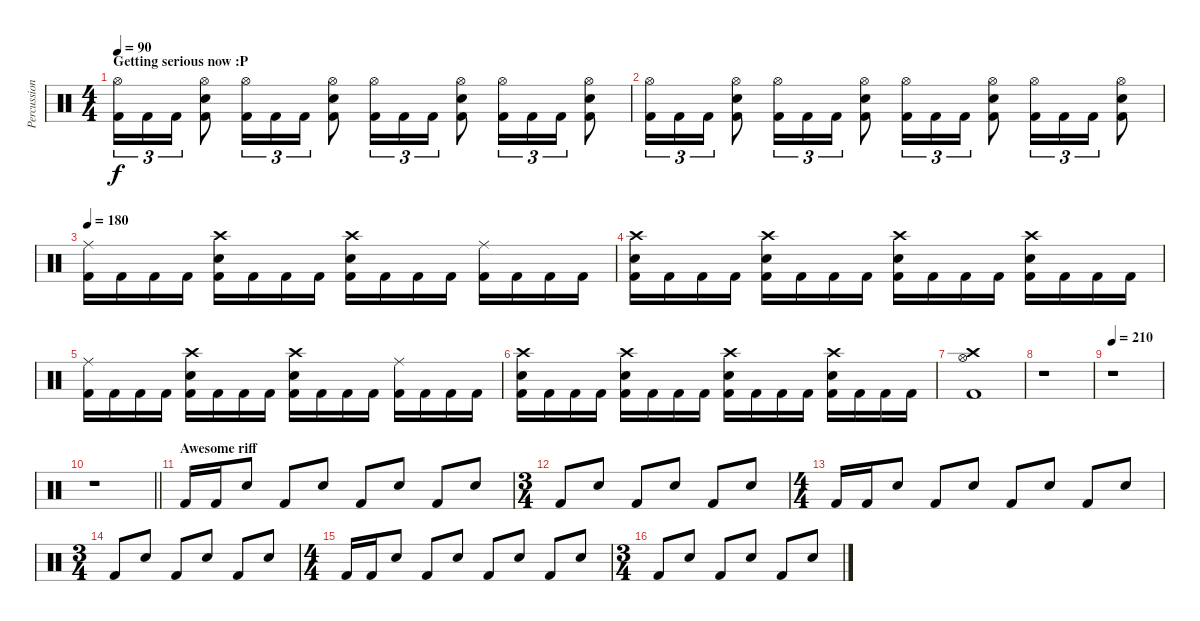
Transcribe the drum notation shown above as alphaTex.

\track ("Percussion" "Percussion") {instrument percussion}
\staff {score}
\articulation defaults
\ts (4 4)
\section ("" "Getting serious now :P")
\tempo 90
\clef neutral
\ks c
("Hi-Hat (open)" "Kick (hit) 2").16{tu (3 2) dy f} "Kick (hit) 2".16{tu (3 2)} "Kick (hit) 2".16{tu (3 2)} ("Hi-Hat (open)" "Snare (hit) 2" "Kick (hit) 2").8 ("Hi-Hat (open)" "Kick (hit) 2").16{tu (3 2)} "Kick (hit) 2".16{tu (3 2)} "Kick (hit) 2".16{tu (3 2)} ("Hi-Hat (open)" "Snare (hit) 2" "Kick (hit) 2").8 ("Hi-Hat (open)" "Kick (hit) 2").16{tu (3 2)} "Kick (hit) 2".16{tu (3 2)} "Kick (hit) 2".16{tu (3 2)} ("Hi-Hat (open)" "Snare (hit) 2" "Kick (hit) 2").8 ("Hi-Hat (open)" "Kick (hit) 2").16{tu (3 2)} "Kick (hit) 2".16{tu (3 2)} "Kick (hit) 2".16{tu (3 2)} ("Hi-Hat (open)" "Snare (hit) 2" "Kick (hit) 2").8 |
("Hi-Hat (open)" "Kick (hit) 2").16{tu (3 2)} "Kick (hit) 2".16{tu (3 2)} "Kick (hit) 2".16{tu (3 2)} ("Hi-Hat (open)" "Snare (hit) 2" "Kick (hit) 2").8 ("Hi-Hat (open)" "Kick (hit) 2").16{tu (3 2)} "Kick (hit) 2".16{tu (3 2)} "Kick (hit) 2".16{tu (3 2)} ("Hi-Hat (open)" "Snare (hit) 2" "Kick (hit) 2").8 ("Hi-Hat (open)" "Kick (hit) 2").16{tu (3 2)} "Kick (hit) 2".16{tu (3 2)} "Kick (hit) 2".16{tu (3 2)} ("Hi-Hat (open)" "Snare (hit) 2" "Kick (hit) 2").8 ("Hi-Hat (open)" "Kick (hit) 2").16{tu (3 2)} "Kick (hit) 2".16{tu (3 2)} "Kick (hit) 2".16{tu (3 2)} ("Hi-Hat (open)" "Snare (hit) 2" "Kick (hit) 2").8 |
\tempo 180
("Ride (middle)" "Kick (hit) 2").16 "Kick (hit) 2".16 "Kick (hit) 2".16 "Kick (hit) 2".16 ("Crash high (hit)" "Snare (hit) 2" "Kick (hit) 2").16 "Kick (hit) 2".16 "Kick (hit) 2".16 "Kick (hit) 2".16 ("Crash high (hit)" "Snare (hit) 2" "Kick (hit) 2").16 "Kick (hit) 2".16 "Kick (hit) 2".16 "Kick (hit) 2".16 ("Ride (middle)" "Kick (hit) 2").16 "Kick (hit) 2".16 "Kick (hit) 2".16 "Kick (hit) 2".16 |
("Crash high (hit)" "Snare (hit) 2" "Kick (hit) 2").16 "Kick (hit) 2".16 "Kick (hit) 2".16 "Kick (hit) 2".16 ("Crash high (hit)" "Snare (hit) 2" "Kick (hit) 2").16 "Kick (hit) 2".16 "Kick (hit) 2".16 "Kick (hit) 2".16 ("Crash high (hit)" "Snare (hit) 2" "Kick (hit) 2").16 "Kick (hit) 2".16 "Kick (hit) 2".16 "Kick (hit) 2".16 ("Crash high (hit)" "Snare (hit) 2" "Kick (hit) 2").16 "Kick (hit) 2".16 "Kick (hit) 2".16 "Kick (hit) 2".16 |
("Ride (middle)" "Kick (hit) 2").16 "Kick (hit) 2".16 "Kick (hit) 2".16 "Kick (hit) 2".16 ("Crash high (hit)" "Snare (hit) 2" "Kick (hit) 2").16 "Kick (hit) 2".16 "Kick (hit) 2".16 "Kick (hit) 2".16 ("Crash high (hit)" "Snare (hit) 2" "Kick (hit) 2").16 "Kick (hit) 2".16 "Kick (hit) 2".16 "Kick (hit) 2".16 ("Ride (middle)" "Kick (hit) 2").16 "Kick (hit) 2".16 "Kick (hit) 2".16 "Kick (hit) 2".16 |
("Crash high (hit)" "Snare (hit) 2" "Kick (hit) 2").16 "Kick (hit) 2".16 "Kick (hit) 2".16 "Kick (hit) 2".16 ("Crash high (hit)" "Snare (hit) 2" "Kick (hit) 2").16 "Kick (hit) 2".16 "Kick (hit) 2".16 "Kick (hit) 2".16 ("Crash high (hit)" "Snare (hit) 2" "Kick (hit) 2").16 "Kick (hit) 2".16 "Kick (hit) 2".16 "Kick (hit) 2".16 ("Crash high (hit)" "Snare (hit) 2" "Kick (hit) 2").16 "Kick (hit) 2".16 "Kick (hit) 2".16 "Kick (hit) 2".16 |
("Hi-Hat (open)" "Crash high (hit)" "Kick (hit) 2").1 |
r.1 |
\tempo 210
r.1 |
\barLineRight lightlight
r.1 |
\section ("" "Awesome riff")
"Kick (hit) 2".16 "Kick (hit) 2".16 "Snare (hit) 2".8 "Kick (hit) 2".8 "Snare (hit) 2".8 "Kick (hit) 2".8 "Snare (hit) 2".8 "Kick (hit) 2".8 "Snare (hit) 2".8 |
\ts (3 4)
"Kick (hit) 2".8 "Snare (hit) 2".8 "Kick (hit) 2".8 "Snare (hit) 2".8 "Kick (hit) 2".8 "Snare (hit) 2".8 |
\ts (4 4)
"Kick (hit) 2".16 "Kick (hit) 2".16 "Snare (hit) 2".8 "Kick (hit) 2".8 "Snare (hit) 2".8 "Kick (hit) 2".8 "Snare (hit) 2".8 "Kick (hit) 2".8 "Snare (hit) 2".8 |
\ts (3 4)
"Kick (hit) 2".8 "Snare (hit) 2".8 "Kick (hit) 2".8 "Snare (hit) 2".8 "Kick (hit) 2".8 "Snare (hit) 2".8 |
\ts (4 4)
"Kick (hit) 2".16 "Kick (hit) 2".16 "Snare (hit) 2".8 "Kick (hit) 2".8 "Snare (hit) 2".8 "Kick (hit) 2".8 "Snare (hit) 2".8 "Kick (hit) 2".8 "Snare (hit) 2".8 |
\ts (3 4)
"Kick (hit) 2".8 "Snare (hit) 2".8 "Kick (hit) 2".8 "Snare (hit) 2".8 "Kick (hit) 2".8 "Snare (hit) 2".8
